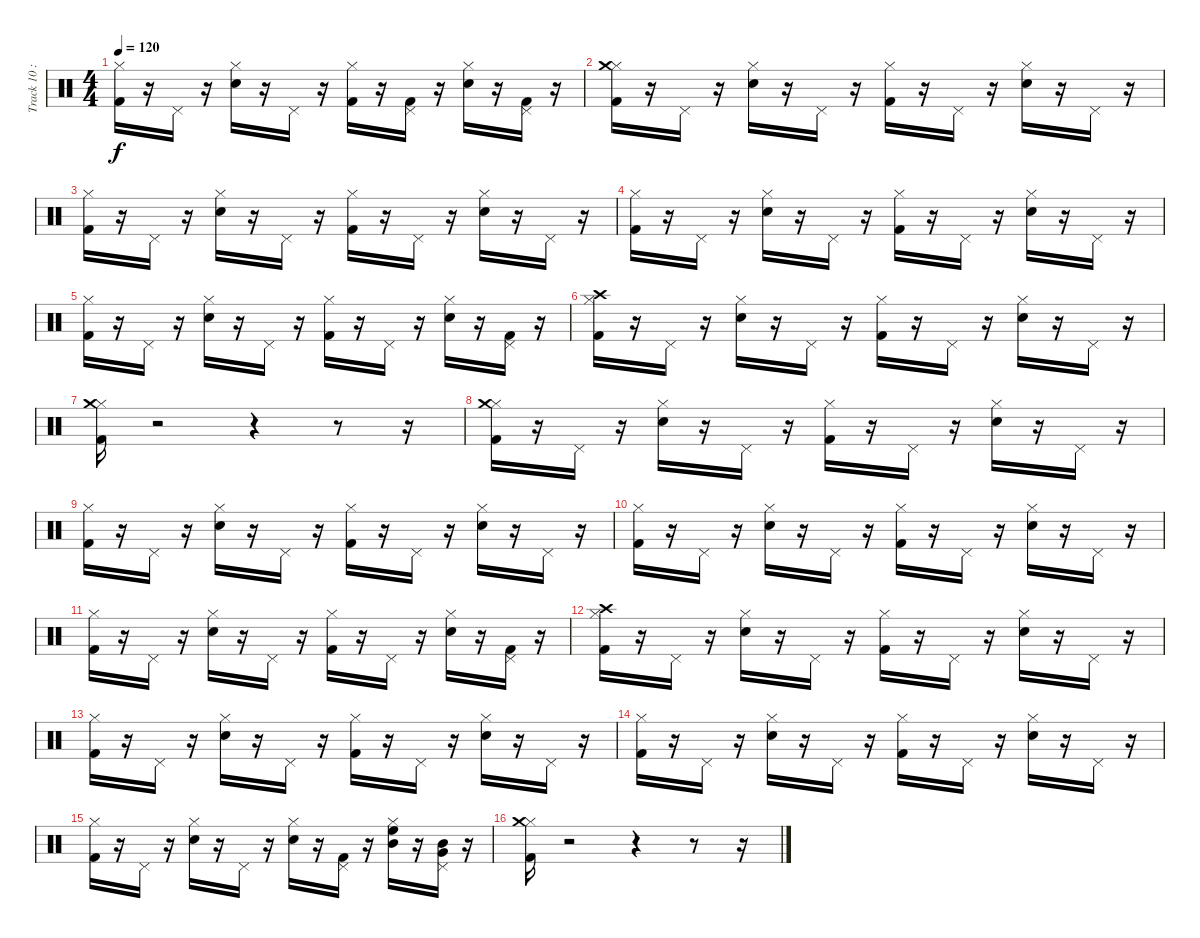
\track ("Track 10 : unspecified" "Track 10 :") {instrument percussion}
\staff {score}
\articulation defaults
\ts (4 4)
\tempo 120
\clef neutral
\ks c
("Kick (hit) 2" "Hi-Hat (closed)").16{dy f} r.16 "Pedal Hi-Hat (hit)".16 r.16 ("Electric Snare (hit)" "Hi-Hat (closed)").16 r.16 "Pedal Hi-Hat (hit)".16 r.16 ("Hi-Hat (closed)" "Kick (hit) 2").16 r.16 ("Kick (hit) 2" "Pedal Hi-Hat (hit)").16 r.16 ("Electric Snare (hit)" "Hi-Hat (closed)").16 r.16 ("Pedal Hi-Hat (hit)" "Kick (hit) 2").16 r.16 |
("Hi-Hat (closed)" "Crash medium (hit)" "Kick (hit) 2").16 r.16 "Pedal Hi-Hat (hit)".16 r.16 ("Hi-Hat (closed)" "Electric Snare (hit)").16 r.16 "Pedal Hi-Hat (hit)".16 r.16 ("Hi-Hat (closed)" "Kick (hit) 2").16 r.16 "Pedal Hi-Hat (hit)".16 r.16 ("Electric Snare (hit)" "Hi-Hat (closed)").16 r.16 "Pedal Hi-Hat (hit)".16 r.16 |
("Kick (hit) 2" "Hi-Hat (closed)").16 r.16 "Pedal Hi-Hat (hit)".16 r.16 ("Electric Snare (hit)" "Hi-Hat (closed)").16 r.16 "Pedal Hi-Hat (hit)".16 r.16 ("Hi-Hat (closed)" "Kick (hit) 2").16 r.16 "Pedal Hi-Hat (hit)".16 r.16 ("Electric Snare (hit)" "Hi-Hat (closed)").16 r.16 "Pedal Hi-Hat (hit)".16 r.16 |
("Kick (hit) 2" "Hi-Hat (closed)").16 r.16 "Pedal Hi-Hat (hit)".16 r.16 ("Electric Snare (hit)" "Hi-Hat (closed)").16 r.16 "Pedal Hi-Hat (hit)".16 r.16 ("Kick (hit) 2" "Hi-Hat (closed)").16 r.16 "Pedal Hi-Hat (hit)".16 r.16 ("Electric Snare (hit)" "Hi-Hat (closed)").16 r.16 "Pedal Hi-Hat (hit)".16 r.16 |
("Kick (hit) 2" "Hi-Hat (closed)").16 r.16 "Pedal Hi-Hat (hit)".16 r.16 ("Electric Snare (hit)" "Hi-Hat (closed)").16 r.16 "Pedal Hi-Hat (hit)".16 r.16 ("Hi-Hat (closed)" "Kick (hit) 2").16 r.16 "Pedal Hi-Hat (hit)".16 r.16 ("Electric Snare (hit)" "Hi-Hat (closed)").16 r.16 ("Pedal Hi-Hat (hit)" "Kick (hit) 2").16 r.16 |
("Hi-Hat (closed)" "Crash high (hit)" "Kick (hit) 2").16 r.16 "Pedal Hi-Hat (hit)".16 r.16 ("Hi-Hat (closed)" "Electric Snare (hit)").16 r.16 "Pedal Hi-Hat (hit)".16 r.16 ("Hi-Hat (closed)" "Kick (hit) 2").16 r.16 "Pedal Hi-Hat (hit)".16 r.16 ("Electric Snare (hit)" "Hi-Hat (closed)").16 r.16 "Pedal Hi-Hat (hit)".16 r.16 |
("Kick (hit) 2" "Hi-Hat (closed)" "Crash medium (hit)").16 r.2 r.4 r.8 r.16 |
("Hi-Hat (closed)" "Crash medium (hit)" "Kick (hit) 2").16 r.16 "Pedal Hi-Hat (hit)".16 r.16 ("Hi-Hat (closed)" "Electric Snare (hit)").16 r.16 "Pedal Hi-Hat (hit)".16 r.16 ("Hi-Hat (closed)" "Kick (hit) 2").16 r.16 "Pedal Hi-Hat (hit)".16 r.16 ("Electric Snare (hit)" "Hi-Hat (closed)").16 r.16 "Pedal Hi-Hat (hit)".16 r.16 |
("Kick (hit) 2" "Hi-Hat (closed)").16 r.16 "Pedal Hi-Hat (hit)".16 r.16 ("Electric Snare (hit)" "Hi-Hat (closed)").16 r.16 "Pedal Hi-Hat (hit)".16 r.16 ("Hi-Hat (closed)" "Kick (hit) 2").16 r.16 "Pedal Hi-Hat (hit)".16 r.16 ("Electric Snare (hit)" "Hi-Hat (closed)").16 r.16 "Pedal Hi-Hat (hit)".16 r.16 |
("Kick (hit) 2" "Hi-Hat (closed)").16 r.16 "Pedal Hi-Hat (hit)".16 r.16 ("Electric Snare (hit)" "Hi-Hat (closed)").16 r.16 "Pedal Hi-Hat (hit)".16 r.16 ("Kick (hit) 2" "Hi-Hat (closed)").16 r.16 "Pedal Hi-Hat (hit)".16 r.16 ("Electric Snare (hit)" "Hi-Hat (closed)").16 r.16 "Pedal Hi-Hat (hit)".16 r.16 |
("Kick (hit) 2" "Hi-Hat (closed)").16 r.16 "Pedal Hi-Hat (hit)".16 r.16 ("Electric Snare (hit)" "Hi-Hat (closed)").16 r.16 "Pedal Hi-Hat (hit)".16 r.16 ("Hi-Hat (closed)" "Kick (hit) 2").16 r.16 "Pedal Hi-Hat (hit)".16 r.16 ("Electric Snare (hit)" "Hi-Hat (closed)").16 r.16 ("Pedal Hi-Hat (hit)" "Kick (hit) 2").16 r.16 |
("Hi-Hat (closed)" "Crash high (hit)" "Kick (hit) 2").16 r.16 "Pedal Hi-Hat (hit)".16 r.16 ("Hi-Hat (closed)" "Electric Snare (hit)").16 r.16 "Pedal Hi-Hat (hit)".16 r.16 ("Hi-Hat (closed)" "Kick (hit) 2").16 r.16 "Pedal Hi-Hat (hit)".16 r.16 ("Electric Snare (hit)" "Hi-Hat (closed)").16 r.16 "Pedal Hi-Hat (hit)".16 r.16 |
("Kick (hit) 2" "Hi-Hat (closed)").16 r.16 "Pedal Hi-Hat (hit)".16 r.16 ("Electric Snare (hit)" "Hi-Hat (closed)").16 r.16 "Pedal Hi-Hat (hit)".16 r.16 ("Hi-Hat (closed)" "Kick (hit) 2").16 r.16 "Pedal Hi-Hat (hit)".16 r.16 ("Electric Snare (hit)" "Hi-Hat (closed)").16 r.16 "Pedal Hi-Hat (hit)".16 r.16 |
("Kick (hit) 2" "Hi-Hat (closed)").16 r.16 "Pedal Hi-Hat (hit)".16 r.16 ("Electric Snare (hit)" "Hi-Hat (closed)").16 r.16 "Pedal Hi-Hat (hit)".16 r.16 ("Kick (hit) 2" "Hi-Hat (closed)").16 r.16 "Pedal Hi-Hat (hit)".16 r.16 ("Electric Snare (hit)" "Hi-Hat (closed)").16 r.16 "Pedal Hi-Hat (hit)".16 r.16 |
("Kick (hit) 2" "Hi-Hat (closed)").16 r.16 "Pedal Hi-Hat (hit)".16 r.16 ("Electric Snare (hit)" "Hi-Hat (closed)").16 r.16 "Pedal Hi-Hat (hit)".16 r.16 ("Electric Snare (hit)" "Hi-Hat (closed)").16 r.16 ("Kick (hit) 2" "Pedal Hi-Hat (hit)").16 r.16 ("High Floor Tom (hit)" "Hi-Hat (closed)" "Mid Tom (hit)").16 r.16 ("Mid Tom (hit)" "Pedal Hi-Hat (hit)" "Very Low Tom (hit)").16 r.16 |
("Hi-Hat (closed)" "Crash medium (hit)" "Kick (hit) 2").16 r.2 r.4 r.8 r.16
